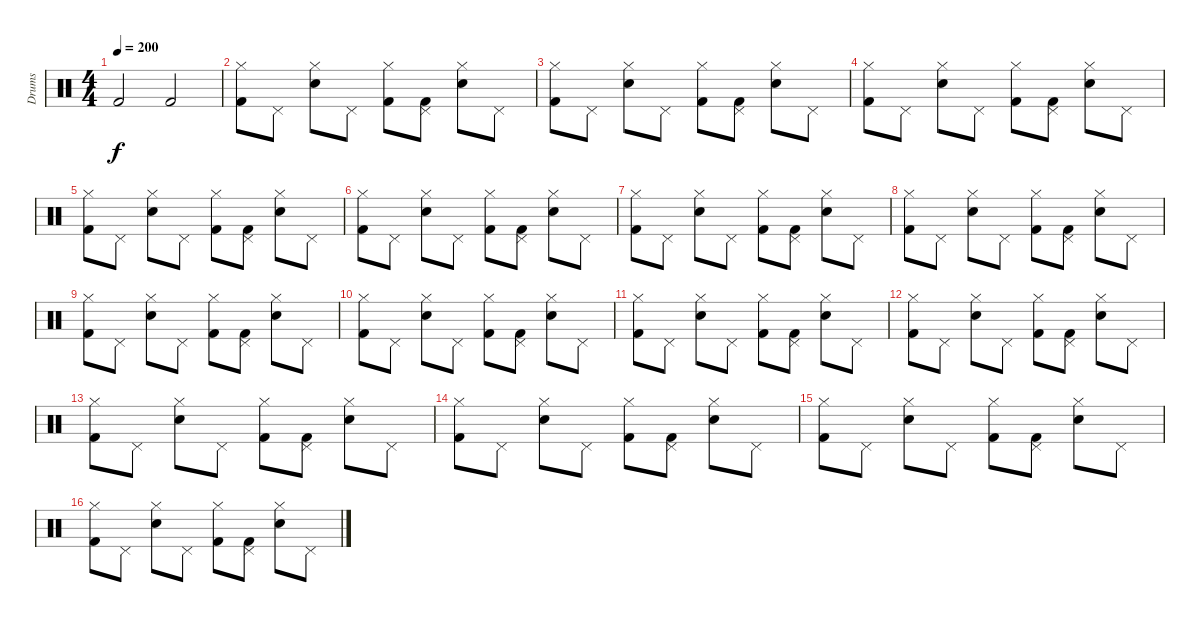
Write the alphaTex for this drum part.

\track ("Drums" "Drums") {instrument percussion}
\staff {score}
\articulation defaults
\ts (4 4)
\tempo 200
\clef neutral
\ks c "Kick (hit) 2".2{dy f} "Kick (hit) 2".2
|
("Hi-Hat (closed)" "Kick (hit) 2").8 "Pedal Hi-Hat (hit)".8 ("Hi-Hat (closed)" "Snare (hit) 2").8 "Pedal Hi-Hat (hit)".8 ("Hi-Hat (closed)" "Kick (hit) 2").8 ("Pedal Hi-Hat (hit)" "Kick (hit) 2").8 ("Hi-Hat (closed)" "Snare (hit) 2").8 "Pedal Hi-Hat (hit)".8 |
("Hi-Hat (closed)" "Kick (hit) 2").8 "Pedal Hi-Hat (hit)".8 ("Hi-Hat (closed)" "Snare (hit) 2").8 "Pedal Hi-Hat (hit)".8 ("Hi-Hat (closed)" "Kick (hit) 2").8 ("Pedal Hi-Hat (hit)" "Kick (hit) 2").8 ("Hi-Hat (closed)" "Snare (hit) 2").8 "Pedal Hi-Hat (hit)".8 |
("Hi-Hat (closed)" "Kick (hit) 2").8 "Pedal Hi-Hat (hit)".8 ("Hi-Hat (closed)" "Snare (hit) 2").8 "Pedal Hi-Hat (hit)".8 ("Hi-Hat (closed)" "Kick (hit) 2").8 ("Pedal Hi-Hat (hit)" "Kick (hit) 2").8 ("Hi-Hat (closed)" "Snare (hit) 2").8 "Pedal Hi-Hat (hit)".8 |
("Hi-Hat (closed)" "Kick (hit) 2").8 "Pedal Hi-Hat (hit)".8 ("Hi-Hat (closed)" "Snare (hit) 2").8 "Pedal Hi-Hat (hit)".8 ("Hi-Hat (closed)" "Kick (hit) 2").8 ("Pedal Hi-Hat (hit)" "Kick (hit) 2").8 ("Hi-Hat (closed)" "Snare (hit) 2").8 "Pedal Hi-Hat (hit)".8 |
("Hi-Hat (closed)" "Kick (hit) 2").8 "Pedal Hi-Hat (hit)".8 ("Hi-Hat (closed)" "Snare (hit) 2").8 "Pedal Hi-Hat (hit)".8 ("Hi-Hat (closed)" "Kick (hit) 2").8 ("Pedal Hi-Hat (hit)" "Kick (hit) 2").8 ("Hi-Hat (closed)" "Snare (hit) 2").8 "Pedal Hi-Hat (hit)".8 |
("Hi-Hat (closed)" "Kick (hit) 2").8 "Pedal Hi-Hat (hit)".8 ("Hi-Hat (closed)" "Snare (hit) 2").8 "Pedal Hi-Hat (hit)".8 ("Hi-Hat (closed)" "Kick (hit) 2").8 ("Pedal Hi-Hat (hit)" "Kick (hit) 2").8 ("Hi-Hat (closed)" "Snare (hit) 2").8 "Pedal Hi-Hat (hit)".8 |
("Hi-Hat (closed)" "Kick (hit) 2").8 "Pedal Hi-Hat (hit)".8 ("Hi-Hat (closed)" "Snare (hit) 2").8 "Pedal Hi-Hat (hit)".8 ("Hi-Hat (closed)" "Kick (hit) 2").8 ("Pedal Hi-Hat (hit)" "Kick (hit) 2").8 ("Hi-Hat (closed)" "Snare (hit) 2").8 "Pedal Hi-Hat (hit)".8 |
("Hi-Hat (closed)" "Kick (hit) 2").8 "Pedal Hi-Hat (hit)".8 ("Hi-Hat (closed)" "Snare (hit) 2").8 "Pedal Hi-Hat (hit)".8 ("Hi-Hat (closed)" "Kick (hit) 2").8 ("Pedal Hi-Hat (hit)" "Kick (hit) 2").8 ("Hi-Hat (closed)" "Snare (hit) 2").8 "Pedal Hi-Hat (hit)".8 |
("Hi-Hat (closed)" "Kick (hit) 2").8 "Pedal Hi-Hat (hit)".8 ("Hi-Hat (closed)" "Snare (hit) 2").8 "Pedal Hi-Hat (hit)".8 ("Hi-Hat (closed)" "Kick (hit) 2").8 ("Pedal Hi-Hat (hit)" "Kick (hit) 2").8 ("Hi-Hat (closed)" "Snare (hit) 2").8 "Pedal Hi-Hat (hit)".8 |
("Hi-Hat (closed)" "Kick (hit) 2").8 "Pedal Hi-Hat (hit)".8 ("Hi-Hat (closed)" "Snare (hit) 2").8 "Pedal Hi-Hat (hit)".8 ("Hi-Hat (closed)" "Kick (hit) 2").8 ("Pedal Hi-Hat (hit)" "Kick (hit) 2").8 ("Hi-Hat (closed)" "Snare (hit) 2").8 "Pedal Hi-Hat (hit)".8 |
("Hi-Hat (closed)" "Kick (hit) 2").8 "Pedal Hi-Hat (hit)".8 ("Hi-Hat (closed)" "Snare (hit) 2").8 "Pedal Hi-Hat (hit)".8 ("Hi-Hat (closed)" "Kick (hit) 2").8 ("Pedal Hi-Hat (hit)" "Kick (hit) 2").8 ("Hi-Hat (closed)" "Snare (hit) 2").8 "Pedal Hi-Hat (hit)".8 |
("Hi-Hat (closed)" "Kick (hit) 2").8 "Pedal Hi-Hat (hit)".8 ("Hi-Hat (closed)" "Snare (hit) 2").8 "Pedal Hi-Hat (hit)".8 ("Hi-Hat (closed)" "Kick (hit) 2").8 ("Pedal Hi-Hat (hit)" "Kick (hit) 2").8 ("Hi-Hat (closed)" "Snare (hit) 2").8 "Pedal Hi-Hat (hit)".8 |
("Hi-Hat (closed)" "Kick (hit) 2").8 "Pedal Hi-Hat (hit)".8 ("Hi-Hat (closed)" "Snare (hit) 2").8 "Pedal Hi-Hat (hit)".8 ("Hi-Hat (closed)" "Kick (hit) 2").8 ("Pedal Hi-Hat (hit)" "Kick (hit) 2").8 ("Hi-Hat (closed)" "Snare (hit) 2").8 "Pedal Hi-Hat (hit)".8 |
("Hi-Hat (closed)" "Kick (hit) 2").8 "Pedal Hi-Hat (hit)".8 ("Hi-Hat (closed)" "Snare (hit) 2").8 "Pedal Hi-Hat (hit)".8 ("Hi-Hat (closed)" "Kick (hit) 2").8 ("Pedal Hi-Hat (hit)" "Kick (hit) 2").8 ("Hi-Hat (closed)" "Snare (hit) 2").8 "Pedal Hi-Hat (hit)".8 |
("Hi-Hat (closed)" "Kick (hit) 2").8 "Pedal Hi-Hat (hit)".8 ("Hi-Hat (closed)" "Snare (hit) 2").8 "Pedal Hi-Hat (hit)".8 ("Hi-Hat (closed)" "Kick (hit) 2").8 ("Pedal Hi-Hat (hit)" "Kick (hit) 2").8 ("Hi-Hat (closed)" "Snare (hit) 2").8 "Pedal Hi-Hat (hit)".8
